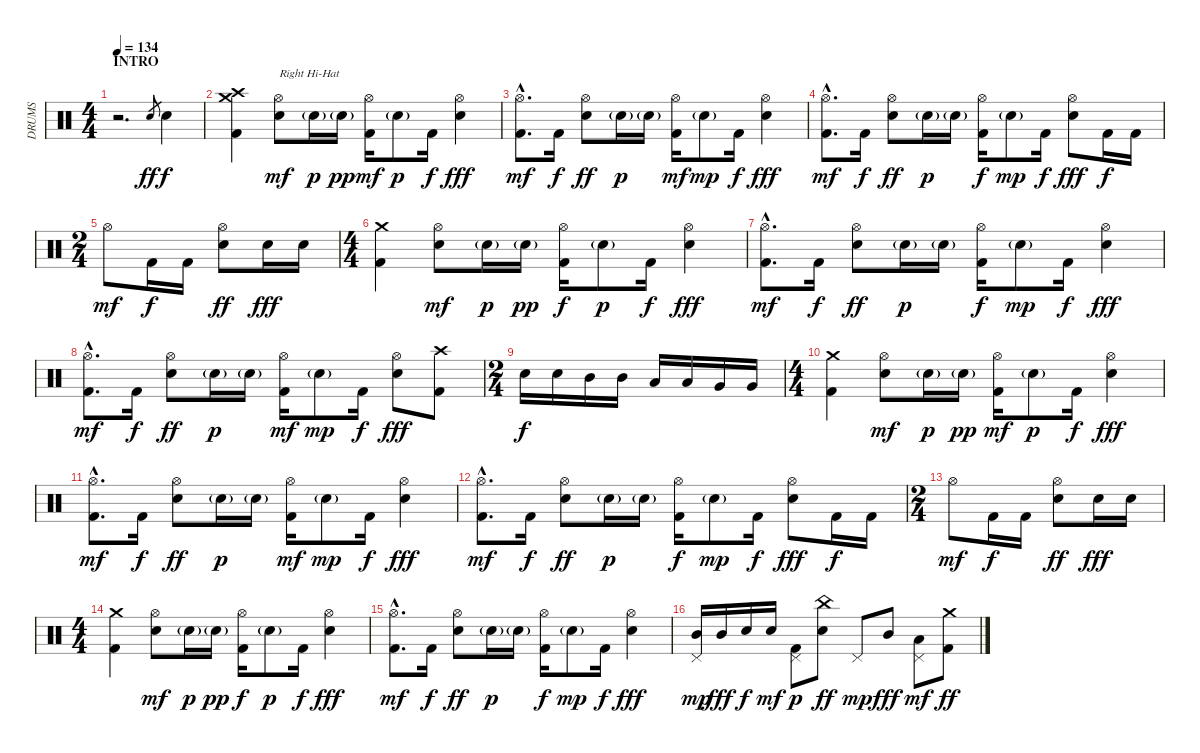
\track ("DRUMS" "DRUMS") {instrument percussion}
\staff {score}
\articulation defaults
\ts (4 4)
\section ("" "INTRO")
\tempo 134
\clef neutral
\ks c
r.2{d dy ff} "Electric Snare (hit)"{h}.8{gr} "Electric Snare (hit)".4{dy f} |
("Crash medium (hit)" "Crash high (hit)" "Kick (hit) 2").4 ("Hi-Hat (open)" "Electric Snare (hit)").8{txt "Right Hi-Hat" dy mf} "Electric Snare (hit)"{g}.16{dy p} "Electric Snare (hit)"{g}.16{dy pp} ("Hi-Hat (open)" "Kick (hit) 2").16{dy mf} "Electric Snare (hit)"{g}.8{dy p} "Kick (hit) 2".16{dy f} ("Hi-Hat (open)" "Electric Snare (hit)").4{dy fff} |
("Hi-Hat (open)"{hac} "Kick (hit) 2"{hac}).8{d dy mf} "Kick (hit) 2".16{dy f} ("Hi-Hat (open)" "Electric Snare (hit)").8{dy ff} "Electric Snare (hit)"{g}.16{dy p} "Electric Snare (hit)"{g}.16 ("Hi-Hat (open)" "Kick (hit) 2").16{dy mf} "Electric Snare (hit)"{g}.8{dy mp} "Kick (hit) 2".16{dy f} ("Hi-Hat (open)" "Electric Snare (hit)").4{dy fff} |
("Hi-Hat (open)"{hac} "Kick (hit) 2"{hac}).8{d dy mf} "Kick (hit) 2".16{dy f} ("Hi-Hat (open)" "Electric Snare (hit)").8{dy ff} "Electric Snare (hit)"{g}.16{dy p} "Electric Snare (hit)"{g}.16 ("Hi-Hat (open)" "Kick (hit) 2").16{dy f} "Electric Snare (hit)"{g}.8{dy mp} "Kick (hit) 2".16{dy f} ("Hi-Hat (open)" "Electric Snare (hit)").8{dy fff} "Kick (hit) 2".16{dy f} "Kick (hit) 2".16 |
\ts (2 4)
"Hi-Hat (open)".8{dy mf} "Kick (hit) 2".16{dy f} "Kick (hit) 2".16 ("Hi-Hat (open)" "Electric Snare (hit)").8{dy ff} "Electric Snare (hit)".16{dy fff} "Electric Snare (hit)".16 |
\ts (4 4)
("Crash medium (hit)" "Kick (hit) 2").4 ("Hi-Hat (open)" "Electric Snare (hit)").8{dy mf} "Electric Snare (hit)"{g}.16{dy p} "Electric Snare (hit)"{g}.16{dy pp} ("Hi-Hat (open)" "Kick (hit) 2").16{dy f} "Electric Snare (hit)"{g}.8{dy p} "Kick (hit) 2".16{dy f} ("Hi-Hat (open)" "Electric Snare (hit)").4{dy fff} |
("Hi-Hat (open)"{hac} "Kick (hit) 2"{hac}).8{d dy mf} "Kick (hit) 2".16{dy f} ("Hi-Hat (open)" "Electric Snare (hit)").8{dy ff} "Electric Snare (hit)"{g}.16{dy p} "Electric Snare (hit)"{g}.16 ("Hi-Hat (open)" "Kick (hit) 2").16{dy f} "Electric Snare (hit)"{g}.8{dy mp} "Kick (hit) 2".16{dy f} ("Hi-Hat (open)" "Electric Snare (hit)").4{dy fff} |
("Hi-Hat (open)"{hac} "Kick (hit) 2"{hac}).8{d dy mf} "Kick (hit) 2".16{dy f} ("Hi-Hat (open)" "Electric Snare (hit)").8{dy ff} "Electric Snare (hit)"{g}.16{dy p} "Electric Snare (hit)"{g}.16 ("Hi-Hat (open)" "Kick (hit) 2").16{dy mf} "Electric Snare (hit)"{g}.8{dy mp} "Kick (hit) 2".16{dy f} ("Hi-Hat (open)" "Electric Snare (hit)").8{dy fff} ("Crash high (hit)" "Kick (hit) 2").8 |
\ts (2 4)
"Electric Snare (hit)".16{dy f} "Electric Snare (hit)".16 "Mid Tom (hit)".16 "Mid Tom (hit)".16 "Low Tom (hit)".16 "Low Tom (hit)".16 "Very Low Tom (hit)".16 "Very Low Tom (hit)".16 |
\ts (4 4)
("Crash medium (hit)" "Kick (hit) 2").4 ("Hi-Hat (open)" "Electric Snare (hit)").8{dy mf} "Electric Snare (hit)"{g}.16{dy p} "Electric Snare (hit)"{g}.16{dy pp} ("Hi-Hat (open)" "Kick (hit) 2").16{dy mf} "Electric Snare (hit)"{g}.8{dy p} "Kick (hit) 2".16{dy f} ("Hi-Hat (open)" "Electric Snare (hit)").4{dy fff} |
("Hi-Hat (open)"{hac} "Kick (hit) 2"{hac}).8{d dy mf} "Kick (hit) 2".16{dy f} ("Hi-Hat (open)" "Electric Snare (hit)").8{dy ff} "Electric Snare (hit)"{g}.16{dy p} "Electric Snare (hit)"{g}.16 ("Hi-Hat (open)" "Kick (hit) 2").16{dy mf} "Electric Snare (hit)"{g}.8{dy mp} "Kick (hit) 2".16{dy f} ("Hi-Hat (open)" "Electric Snare (hit)").4{dy fff} |
("Hi-Hat (open)"{hac} "Kick (hit) 2"{hac}).8{d dy mf} "Kick (hit) 2".16{dy f} ("Hi-Hat (open)" "Electric Snare (hit)").8{dy ff} "Electric Snare (hit)"{g}.16{dy p} "Electric Snare (hit)"{g}.16 ("Hi-Hat (open)" "Kick (hit) 2").16{dy f} "Electric Snare (hit)"{g}.8{dy mp} "Kick (hit) 2".16{dy f} ("Hi-Hat (open)" "Electric Snare (hit)").8{dy fff} "Kick (hit) 2".16{dy f} "Kick (hit) 2".16 |
\ts (2 4)
"Hi-Hat (open)".8{dy mf} "Kick (hit) 2".16{dy f} "Kick (hit) 2".16 ("Hi-Hat (open)" "Electric Snare (hit)").8{dy ff} "Electric Snare (hit)".16{dy fff} "Electric Snare (hit)".16 |
\ts (4 4)
("Crash medium (hit)" "Kick (hit) 2").4 ("Hi-Hat (open)" "Electric Snare (hit)").8{dy mf} "Electric Snare (hit)"{g}.16{dy p} "Electric Snare (hit)"{g}.16{dy pp} ("Hi-Hat (open)" "Kick (hit) 2").16{dy f} "Electric Snare (hit)"{g}.8{dy p} "Kick (hit) 2".16{dy f} ("Hi-Hat (open)" "Electric Snare (hit)").4{dy fff} |
("Hi-Hat (open)"{hac} "Kick (hit) 2"{hac}).8{d dy mf} "Kick (hit) 2".16{dy f} ("Hi-Hat (open)" "Electric Snare (hit)").8{dy ff} "Electric Snare (hit)"{g}.16{dy p} "Electric Snare (hit)"{g}.16 ("Hi-Hat (open)" "Kick (hit) 2").16{dy f} "Electric Snare (hit)"{g}.8{dy mp} "Kick (hit) 2".16{dy f} ("Hi-Hat (open)" "Electric Snare (hit)").4{dy fff} |
("Mid Tom (hit)" "Pedal Hi-Hat (hit)").16{dy mp} "Mid Tom (hit)".16{dy fff} "Electric Snare (hit)".16{dy f} "Electric Snare (hit)".16{dy mf} ("Pedal Hi-Hat (hit)" "Kick (hit) 2").8{dy p} ("China (hit)" "Electric Snare (hit)").8{dy ff} "Pedal Hi-Hat (hit)".8{dy mp} "Mid Tom (hit)".8{dy fff} ("Low Tom (hit)" "Pedal Hi-Hat (hit)").8{dy mf} ("Crash medium (hit)" "Kick (hit) 2").8{dy ff}
